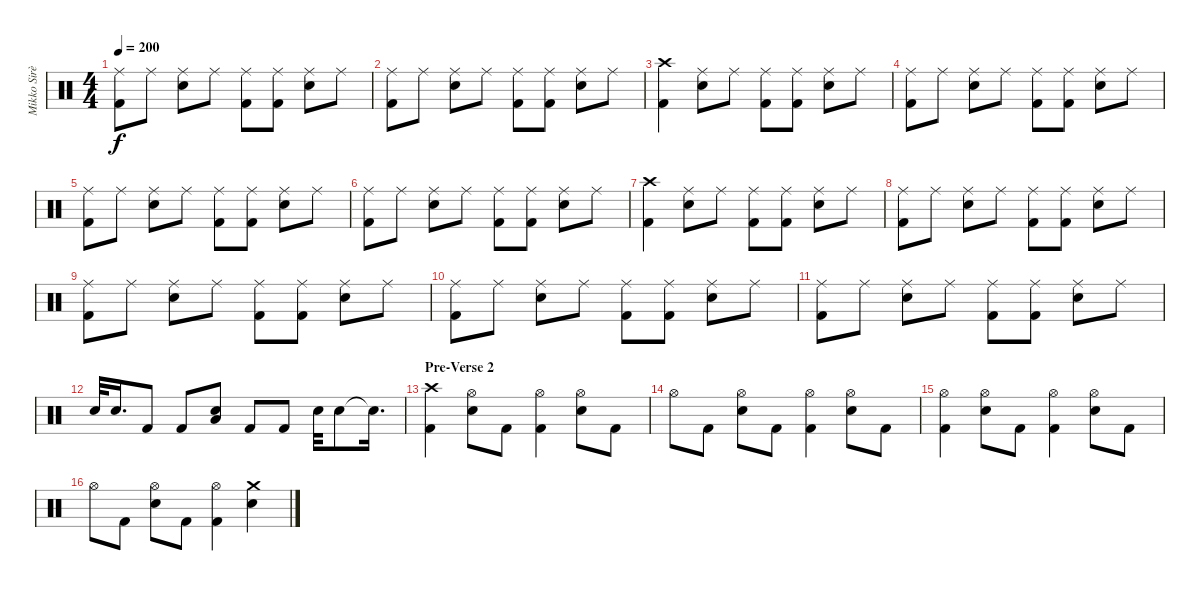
\track ("Mikko Sirèn" "Mikko Sirè") {instrument percussion}
\staff {score}
\articulation defaults
\ts (4 4)
\tempo 200
\clef neutral
\ks c
("Ride (middle)" "Kick (hit) 2").8{dy f} "Ride (middle)".8 ("Ride (middle)" "Electric Snare (hit)").8 "Ride (middle)".8 ("Ride (middle)" "Kick (hit) 2").8 ("Ride (middle)" "Kick (hit) 2").8 ("Ride (middle)" "Electric Snare (hit)").8 "Ride (middle)".8 |
("Ride (middle)" "Kick (hit) 2").8 "Ride (middle)".8 ("Ride (middle)" "Electric Snare (hit)").8 "Ride (middle)".8 ("Ride (middle)" "Kick (hit) 2").8 ("Ride (middle)" "Kick (hit) 2").8 ("Ride (middle)" "Electric Snare (hit)").8 "Ride (middle)".8 |
("Crash high (hit)" "Kick (hit) 2").4 ("Ride (middle)" "Electric Snare (hit)").8 "Ride (middle)".8 ("Ride (middle)" "Kick (hit) 2").8 ("Ride (middle)" "Kick (hit) 2").8 ("Ride (middle)" "Electric Snare (hit)").8 "Ride (middle)".8 |
("Ride (middle)" "Kick (hit) 2").8 "Ride (middle)".8 ("Ride (middle)" "Electric Snare (hit)").8 "Ride (middle)".8 ("Ride (middle)" "Kick (hit) 2").8 ("Ride (middle)" "Kick (hit) 2").8 ("Ride (middle)" "Electric Snare (hit)").8 "Ride (middle)".8 |
("Ride (middle)" "Kick (hit) 2").8 "Ride (middle)".8 ("Ride (middle)" "Electric Snare (hit)").8 "Ride (middle)".8 ("Ride (middle)" "Kick (hit) 2").8 ("Ride (middle)" "Kick (hit) 2").8 ("Ride (middle)" "Electric Snare (hit)").8 "Ride (middle)".8 |
("Ride (middle)" "Kick (hit) 2").8 "Ride (middle)".8 ("Ride (middle)" "Electric Snare (hit)").8 "Ride (middle)".8 ("Ride (middle)" "Kick (hit) 2").8 ("Ride (middle)" "Kick (hit) 2").8 ("Ride (middle)" "Electric Snare (hit)").8 "Ride (middle)".8 |
("Crash high (hit)" "Kick (hit) 2").4 ("Ride (middle)" "Electric Snare (hit)").8 "Ride (middle)".8 ("Ride (middle)" "Kick (hit) 2").8 ("Ride (middle)" "Kick (hit) 2").8 ("Ride (middle)" "Electric Snare (hit)").8 "Ride (middle)".8 |
("Ride (middle)" "Kick (hit) 2").8 "Ride (middle)".8 ("Ride (middle)" "Electric Snare (hit)").8 "Ride (middle)".8 ("Ride (middle)" "Kick (hit) 2").8 ("Ride (middle)" "Kick (hit) 2").8 ("Ride (middle)" "Electric Snare (hit)").8 "Ride (middle)".8 |
("Ride (middle)" "Kick (hit) 2").8 "Ride (middle)".8 ("Ride (middle)" "Electric Snare (hit)").8 "Ride (middle)".8 ("Ride (middle)" "Kick (hit) 2").8 ("Ride (middle)" "Kick (hit) 2").8 ("Ride (middle)" "Electric Snare (hit)").8 "Ride (middle)".8 |
("Ride (middle)" "Kick (hit) 2").8 "Ride (middle)".8 ("Ride (middle)" "Electric Snare (hit)").8 "Ride (middle)".8 ("Ride (middle)" "Kick (hit) 2").8 ("Ride (middle)" "Kick (hit) 2").8 ("Ride (middle)" "Electric Snare (hit)").8 "Ride (middle)".8 |
("Ride (middle)" "Kick (hit) 2").8 "Ride (middle)".8 ("Ride (middle)" "Electric Snare (hit)").8 "Ride (middle)".8 ("Ride (middle)" "Kick (hit) 2").8 ("Ride (middle)" "Kick (hit) 2").8 ("Ride (middle)" "Electric Snare (hit)").8 "Ride (middle)".8 |
"Electric Snare (hit)".32 "Electric Snare (hit)".16{d} "Kick (hit) 2".8 "Kick (hit) 2".8 ("Low Floor Tom (hit)" "Electric Snare (hit)").8 "Kick (hit) 2".8 "Kick (hit) 2".8 "Electric Snare (hit)".32 "Electric Snare (hit)".8 "Electric Snare (hit)"{t}.16{d} |
\section ("" "Pre-Verse 2")
("Crash high (hit)" "Kick (hit) 2").4 ("Hi-Hat (open)" "Electric Snare (hit)").8 "Kick (hit) 2".8 ("Hi-Hat (open)" "Kick (hit) 2").4 ("Hi-Hat (open)" "Electric Snare (hit)").8 "Kick (hit) 2".8 |
"Hi-Hat (open)".8 "Kick (hit) 2".8 ("Hi-Hat (open)" "Electric Snare (hit)").8 "Kick (hit) 2".8 ("Hi-Hat (open)" "Kick (hit) 2").4 ("Hi-Hat (open)" "Electric Snare (hit)").8 "Kick (hit) 2".8 |
("Hi-Hat (open)" "Kick (hit) 2").4 ("Hi-Hat (open)" "Electric Snare (hit)").8 "Kick (hit) 2".8 ("Hi-Hat (open)" "Kick (hit) 2").4 ("Hi-Hat (open)" "Electric Snare (hit)").8 "Kick (hit) 2".8 |
"Hi-Hat (open)".8 "Kick (hit) 2".8 ("Hi-Hat (open)" "Electric Snare (hit)").8 "Kick (hit) 2".8 ("Hi-Hat (open)" "Kick (hit) 2").4 ("Crash medium (hit)" "Electric Snare (hit)").4
